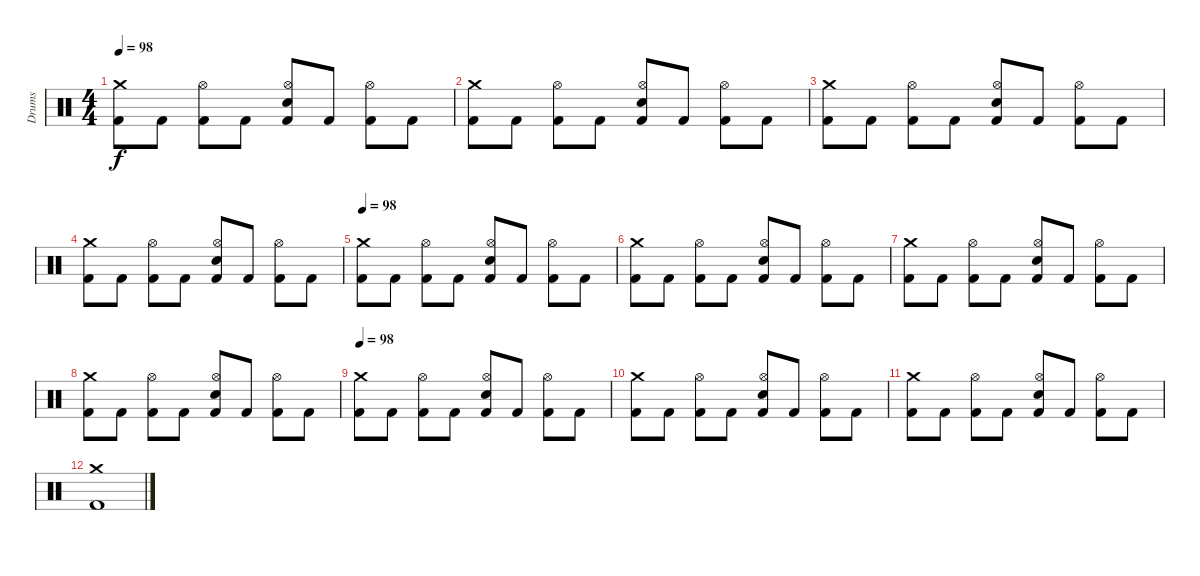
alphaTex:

\track ("Drums" "Drums") {instrument percussion}
\staff {score}
\articulation defaults
\ts (4 4)
\tempo 98
\clef neutral
\ks c
("Kick (hit) 2" "Crash medium (hit)").8{dy f} "Kick (hit) 2".8 ("Kick (hit) 2" "Hi-Hat (open)").8 "Kick (hit) 2".8 ("Kick (hit) 2" "Electric Snare (hit)" "Hi-Hat (open)").8 "Kick (hit) 2".8 ("Kick (hit) 2" "Hi-Hat (open)").8 "Kick (hit) 2".8 |
("Kick (hit) 2" "Crash medium (hit)").8 "Kick (hit) 2".8 ("Kick (hit) 2" "Hi-Hat (open)").8 "Kick (hit) 2".8 ("Kick (hit) 2" "Electric Snare (hit)" "Hi-Hat (open)").8 "Kick (hit) 2".8 ("Kick (hit) 2" "Hi-Hat (open)").8 "Kick (hit) 2".8 |
("Kick (hit) 2" "Crash medium (hit)").8 "Kick (hit) 2".8 ("Kick (hit) 2" "Hi-Hat (open)").8 "Kick (hit) 2".8 ("Kick (hit) 2" "Electric Snare (hit)" "Hi-Hat (open)").8 "Kick (hit) 2".8 ("Kick (hit) 2" "Hi-Hat (open)").8 "Kick (hit) 2".8 |
("Kick (hit) 2" "Crash medium (hit)").8 "Kick (hit) 2".8 ("Kick (hit) 2" "Hi-Hat (open)").8 "Kick (hit) 2".8 ("Kick (hit) 2" "Electric Snare (hit)" "Hi-Hat (open)").8 "Kick (hit) 2".8 ("Kick (hit) 2" "Hi-Hat (open)").8 "Kick (hit) 2".8 |
\tempo 98
("Kick (hit) 2" "Crash medium (hit)").8 "Kick (hit) 2".8 ("Kick (hit) 2" "Hi-Hat (open)").8 "Kick (hit) 2".8 ("Kick (hit) 2" "Electric Snare (hit)" "Hi-Hat (open)").8 "Kick (hit) 2".8 ("Kick (hit) 2" "Hi-Hat (open)").8 "Kick (hit) 2".8 |
("Kick (hit) 2" "Crash medium (hit)").8 "Kick (hit) 2".8 ("Kick (hit) 2" "Hi-Hat (open)").8 "Kick (hit) 2".8 ("Kick (hit) 2" "Electric Snare (hit)" "Hi-Hat (open)").8 "Kick (hit) 2".8 ("Kick (hit) 2" "Hi-Hat (open)").8 "Kick (hit) 2".8 |
("Kick (hit) 2" "Crash medium (hit)").8 "Kick (hit) 2".8 ("Kick (hit) 2" "Hi-Hat (open)").8 "Kick (hit) 2".8 ("Kick (hit) 2" "Electric Snare (hit)" "Hi-Hat (open)").8 "Kick (hit) 2".8 ("Kick (hit) 2" "Hi-Hat (open)").8 "Kick (hit) 2".8 |
("Kick (hit) 2" "Crash medium (hit)").8 "Kick (hit) 2".8 ("Kick (hit) 2" "Hi-Hat (open)").8 "Kick (hit) 2".8 ("Kick (hit) 2" "Electric Snare (hit)" "Hi-Hat (open)").8 "Kick (hit) 2".8 ("Kick (hit) 2" "Hi-Hat (open)").8 "Kick (hit) 2".8 |
\tempo 98
("Kick (hit) 2" "Crash medium (hit)").8 "Kick (hit) 2".8 ("Kick (hit) 2" "Hi-Hat (open)").8 "Kick (hit) 2".8 ("Kick (hit) 2" "Electric Snare (hit)" "Hi-Hat (open)").8 "Kick (hit) 2".8 ("Kick (hit) 2" "Hi-Hat (open)").8 "Kick (hit) 2".8 |
("Kick (hit) 2" "Crash medium (hit)").8 "Kick (hit) 2".8 ("Kick (hit) 2" "Hi-Hat (open)").8 "Kick (hit) 2".8 ("Kick (hit) 2" "Electric Snare (hit)" "Hi-Hat (open)").8 "Kick (hit) 2".8 ("Kick (hit) 2" "Hi-Hat (open)").8 "Kick (hit) 2".8 |
("Kick (hit) 2" "Crash medium (hit)").8 "Kick (hit) 2".8 ("Kick (hit) 2" "Hi-Hat (open)").8 "Kick (hit) 2".8 ("Kick (hit) 2" "Electric Snare (hit)" "Hi-Hat (open)").8 "Kick (hit) 2".8 ("Kick (hit) 2" "Hi-Hat (open)").8 "Kick (hit) 2".8 |
("Kick (hit) 2" "Crash medium (hit)").1
